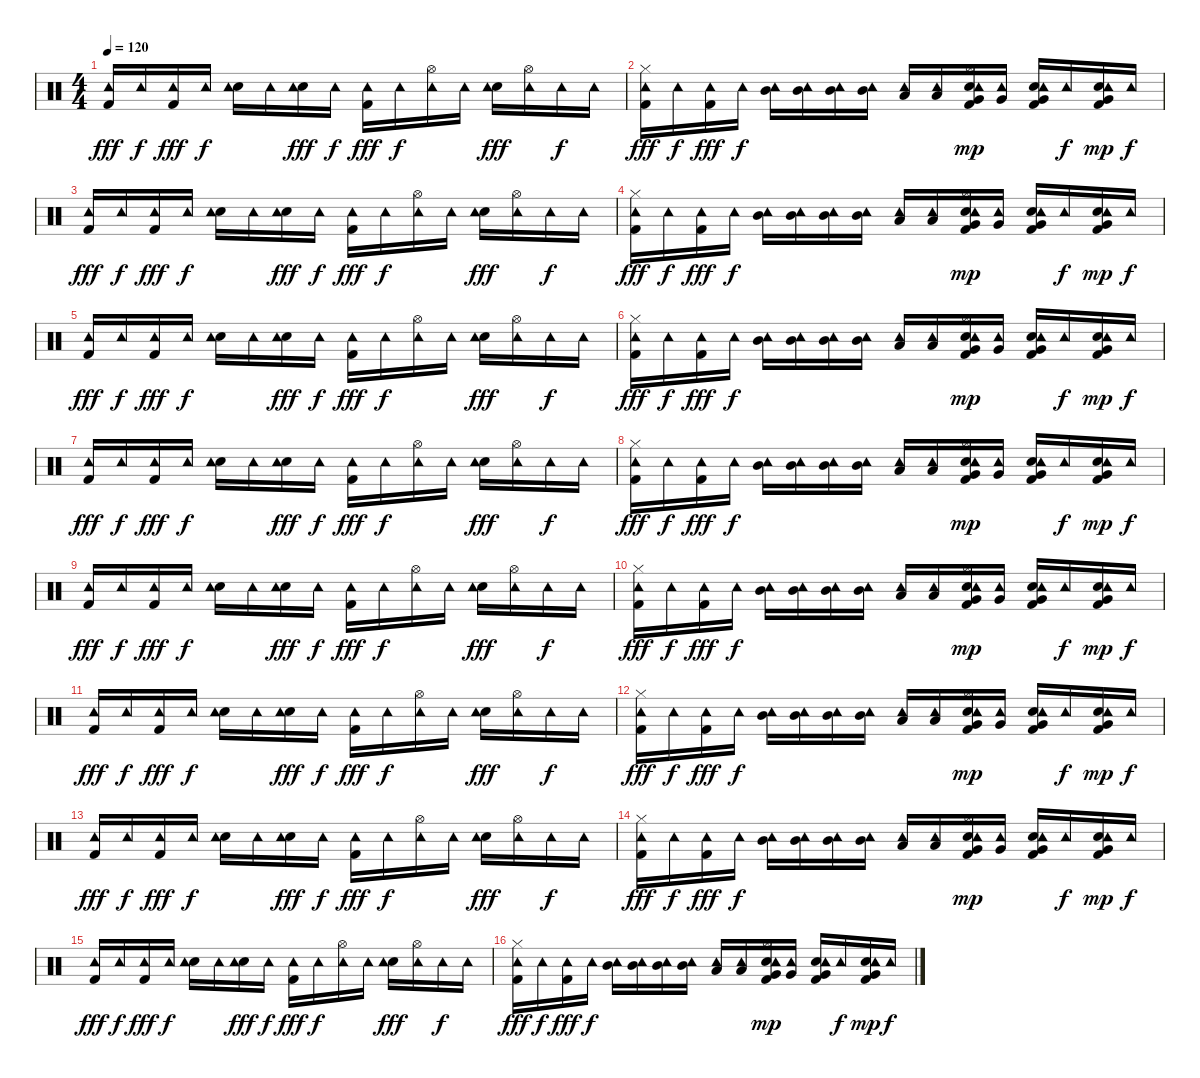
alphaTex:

\track "" {instrument percussion}
\staff {score}
\articulation defaults
\ts (4 4)
\tempo 120
\clef neutral
\ks c
("Tambourine (hit)" "Kick (hit) 2").16{dy fff} "Tambourine (hit)".16{dy f} ("Tambourine (hit)" "Kick (hit) 2").16{dy fff} "Tambourine (hit)".16{dy f} ("Hand Clap (hit)" "Tambourine (hit)").16 "Tambourine (hit)".16 ("Hand Clap (hit)" "Tambourine (hit)").16{dy fff} "Tambourine (hit)".16{dy f} ("Tambourine (hit)" "Kick (hit) 2").16{dy fff} "Tambourine (hit)".16{dy f} ("Hi-Hat (open)" "Tambourine (hit)").16 "Tambourine (hit)".16 ("Snare (hit) 2" "Tambourine (hit)").16{dy fff} ("Hi-Hat (open)" "Tambourine (hit)").16 "Tambourine (hit)".16{dy f} "Tambourine (hit)".16 |
("Hi-Hat (closed)" "Tambourine (hit)" "Kick (hit) 2").16{dy fff} "Tambourine (hit)".16{dy f} ("Tambourine (hit)" "Kick (hit) 2").16{dy fff} "Tambourine (hit)".16{dy f} ("Mid Tom (hit)" "Tambourine (hit)").16 ("Mid Tom (hit)" "Tambourine (hit)").16 ("Mid Tom (hit)" "Tambourine (hit)").16 ("Mid Tom (hit)" "Tambourine (hit)").16 ("Low Tom (hit)" "Tambourine (hit)").16 ("Low Tom (hit)" "Tambourine (hit)").16 ("Hi-Hat (open)" "Hand Clap (hit)" "Kick (hit) 2" "Very Low Tom (hit)" "Tambourine (hit)").16{dy mp} ("Very Low Tom (hit)" "Tambourine (hit)").16 ("Kick (hit) 2" "Very Low Tom (hit)" "Hand Clap (hit)" "Tambourine (hit)").16 "Tambourine (hit)".16{dy f} ("Kick (hit) 2" "Very Low Tom (hit)" "Hand Clap (hit)" "Tambourine (hit)").16{dy mp} "Tambourine (hit)".16{dy f} |
("Tambourine (hit)" "Kick (hit) 2").16{dy fff} "Tambourine (hit)".16{dy f} ("Tambourine (hit)" "Kick (hit) 2").16{dy fff} "Tambourine (hit)".16{dy f} ("Hand Clap (hit)" "Tambourine (hit)").16 "Tambourine (hit)".16 ("Hand Clap (hit)" "Tambourine (hit)").16{dy fff} "Tambourine (hit)".16{dy f} ("Tambourine (hit)" "Kick (hit) 2").16{dy fff} "Tambourine (hit)".16{dy f} ("Hi-Hat (open)" "Tambourine (hit)").16 "Tambourine (hit)".16 ("Snare (hit) 2" "Tambourine (hit)").16{dy fff} ("Hi-Hat (open)" "Tambourine (hit)").16 "Tambourine (hit)".16{dy f} "Tambourine (hit)".16 |
("Hi-Hat (closed)" "Tambourine (hit)" "Kick (hit) 2").16{dy fff} "Tambourine (hit)".16{dy f} ("Tambourine (hit)" "Kick (hit) 2").16{dy fff} "Tambourine (hit)".16{dy f} ("Mid Tom (hit)" "Tambourine (hit)").16 ("Mid Tom (hit)" "Tambourine (hit)").16 ("Mid Tom (hit)" "Tambourine (hit)").16 ("Mid Tom (hit)" "Tambourine (hit)").16 ("Low Tom (hit)" "Tambourine (hit)").16 ("Low Tom (hit)" "Tambourine (hit)").16 ("Hi-Hat (open)" "Hand Clap (hit)" "Kick (hit) 2" "Very Low Tom (hit)" "Tambourine (hit)").16{dy mp} ("Very Low Tom (hit)" "Tambourine (hit)").16 ("Kick (hit) 2" "Very Low Tom (hit)" "Hand Clap (hit)" "Tambourine (hit)").16 "Tambourine (hit)".16{dy f} ("Kick (hit) 2" "Very Low Tom (hit)" "Hand Clap (hit)" "Tambourine (hit)").16{dy mp} "Tambourine (hit)".16{dy f} |
("Tambourine (hit)" "Kick (hit) 2").16{dy fff} "Tambourine (hit)".16{dy f} ("Tambourine (hit)" "Kick (hit) 2").16{dy fff} "Tambourine (hit)".16{dy f} ("Hand Clap (hit)" "Tambourine (hit)").16 "Tambourine (hit)".16 ("Hand Clap (hit)" "Tambourine (hit)").16{dy fff} "Tambourine (hit)".16{dy f} ("Tambourine (hit)" "Kick (hit) 2").16{dy fff} "Tambourine (hit)".16{dy f} ("Hi-Hat (open)" "Tambourine (hit)").16 "Tambourine (hit)".16 ("Snare (hit) 2" "Tambourine (hit)").16{dy fff} ("Hi-Hat (open)" "Tambourine (hit)").16 "Tambourine (hit)".16{dy f} "Tambourine (hit)".16 |
("Hi-Hat (closed)" "Tambourine (hit)" "Kick (hit) 2").16{dy fff} "Tambourine (hit)".16{dy f} ("Tambourine (hit)" "Kick (hit) 2").16{dy fff} "Tambourine (hit)".16{dy f} ("Mid Tom (hit)" "Tambourine (hit)").16 ("Mid Tom (hit)" "Tambourine (hit)").16 ("Mid Tom (hit)" "Tambourine (hit)").16 ("Mid Tom (hit)" "Tambourine (hit)").16 ("Low Tom (hit)" "Tambourine (hit)").16 ("Low Tom (hit)" "Tambourine (hit)").16 ("Hi-Hat (open)" "Hand Clap (hit)" "Kick (hit) 2" "Very Low Tom (hit)" "Tambourine (hit)").16{dy mp} ("Very Low Tom (hit)" "Tambourine (hit)").16 ("Kick (hit) 2" "Very Low Tom (hit)" "Hand Clap (hit)" "Tambourine (hit)").16 "Tambourine (hit)".16{dy f} ("Kick (hit) 2" "Very Low Tom (hit)" "Hand Clap (hit)" "Tambourine (hit)").16{dy mp} "Tambourine (hit)".16{dy f} |
("Tambourine (hit)" "Kick (hit) 2").16{dy fff volume 12 balance 8} "Tambourine (hit)".16{dy f} ("Tambourine (hit)" "Kick (hit) 2").16{dy fff} "Tambourine (hit)".16{dy f} ("Hand Clap (hit)" "Tambourine (hit)").16 "Tambourine (hit)".16 ("Hand Clap (hit)" "Tambourine (hit)").16{dy fff} "Tambourine (hit)".16{dy f} ("Tambourine (hit)" "Kick (hit) 2").16{dy fff} "Tambourine (hit)".16{dy f} ("Hi-Hat (open)" "Tambourine (hit)").16 "Tambourine (hit)".16 ("Snare (hit) 2" "Tambourine (hit)").16{dy fff} ("Hi-Hat (open)" "Tambourine (hit)").16 "Tambourine (hit)".16{dy f} "Tambourine (hit)".16 |
("Hi-Hat (closed)" "Tambourine (hit)" "Kick (hit) 2").16{dy fff} "Tambourine (hit)".16{dy f} ("Tambourine (hit)" "Kick (hit) 2").16{dy fff} "Tambourine (hit)".16{dy f} ("Mid Tom (hit)" "Tambourine (hit)").16 ("Mid Tom (hit)" "Tambourine (hit)").16 ("Mid Tom (hit)" "Tambourine (hit)").16 ("Mid Tom (hit)" "Tambourine (hit)").16 ("Low Tom (hit)" "Tambourine (hit)").16 ("Low Tom (hit)" "Tambourine (hit)").16 ("Hi-Hat (open)" "Hand Clap (hit)" "Kick (hit) 2" "Very Low Tom (hit)" "Tambourine (hit)").16{dy mp} ("Very Low Tom (hit)" "Tambourine (hit)").16 ("Kick (hit) 2" "Very Low Tom (hit)" "Hand Clap (hit)" "Tambourine (hit)").16 "Tambourine (hit)".16{dy f} ("Kick (hit) 2" "Very Low Tom (hit)" "Hand Clap (hit)" "Tambourine (hit)").16{dy mp} "Tambourine (hit)".16{dy f} |
("Tambourine (hit)" "Kick (hit) 2").16{dy fff} "Tambourine (hit)".16{dy f} ("Tambourine (hit)" "Kick (hit) 2").16{dy fff} "Tambourine (hit)".16{dy f} ("Hand Clap (hit)" "Tambourine (hit)").16 "Tambourine (hit)".16 ("Hand Clap (hit)" "Tambourine (hit)").16{dy fff} "Tambourine (hit)".16{dy f} ("Tambourine (hit)" "Kick (hit) 2").16{dy fff} "Tambourine (hit)".16{dy f} ("Hi-Hat (open)" "Tambourine (hit)").16 "Tambourine (hit)".16 ("Snare (hit) 2" "Tambourine (hit)").16{dy fff} ("Hi-Hat (open)" "Tambourine (hit)").16 "Tambourine (hit)".16{dy f} "Tambourine (hit)".16 |
("Hi-Hat (closed)" "Tambourine (hit)" "Kick (hit) 2").16{dy fff} "Tambourine (hit)".16{dy f} ("Tambourine (hit)" "Kick (hit) 2").16{dy fff} "Tambourine (hit)".16{dy f} ("Mid Tom (hit)" "Tambourine (hit)").16 ("Mid Tom (hit)" "Tambourine (hit)").16 ("Mid Tom (hit)" "Tambourine (hit)").16 ("Mid Tom (hit)" "Tambourine (hit)").16 ("Low Tom (hit)" "Tambourine (hit)").16 ("Low Tom (hit)" "Tambourine (hit)").16 ("Hi-Hat (open)" "Hand Clap (hit)" "Kick (hit) 2" "Very Low Tom (hit)" "Tambourine (hit)").16{dy mp} ("Very Low Tom (hit)" "Tambourine (hit)").16 ("Kick (hit) 2" "Very Low Tom (hit)" "Hand Clap (hit)" "Tambourine (hit)").16 "Tambourine (hit)".16{dy f} ("Kick (hit) 2" "Very Low Tom (hit)" "Hand Clap (hit)" "Tambourine (hit)").16{dy mp} "Tambourine (hit)".16{dy f} |
("Tambourine (hit)" "Kick (hit) 2").16{dy fff} "Tambourine (hit)".16{dy f} ("Tambourine (hit)" "Kick (hit) 2").16{dy fff} "Tambourine (hit)".16{dy f} ("Hand Clap (hit)" "Tambourine (hit)").16 "Tambourine (hit)".16 ("Hand Clap (hit)" "Tambourine (hit)").16{dy fff} "Tambourine (hit)".16{dy f} ("Tambourine (hit)" "Kick (hit) 2").16{dy fff} "Tambourine (hit)".16{dy f} ("Hi-Hat (open)" "Tambourine (hit)").16 "Tambourine (hit)".16 ("Snare (hit) 2" "Tambourine (hit)").16{dy fff} ("Hi-Hat (open)" "Tambourine (hit)").16 "Tambourine (hit)".16{dy f} "Tambourine (hit)".16 |
("Hi-Hat (closed)" "Tambourine (hit)" "Kick (hit) 2").16{dy fff} "Tambourine (hit)".16{dy f} ("Tambourine (hit)" "Kick (hit) 2").16{dy fff} "Tambourine (hit)".16{dy f} ("Mid Tom (hit)" "Tambourine (hit)").16 ("Mid Tom (hit)" "Tambourine (hit)").16 ("Mid Tom (hit)" "Tambourine (hit)").16 ("Mid Tom (hit)" "Tambourine (hit)").16 ("Low Tom (hit)" "Tambourine (hit)").16 ("Low Tom (hit)" "Tambourine (hit)").16 ("Hi-Hat (open)" "Hand Clap (hit)" "Kick (hit) 2" "Very Low Tom (hit)" "Tambourine (hit)").16{dy mp} ("Very Low Tom (hit)" "Tambourine (hit)").16 ("Kick (hit) 2" "Very Low Tom (hit)" "Hand Clap (hit)" "Tambourine (hit)").16 "Tambourine (hit)".16{dy f} ("Kick (hit) 2" "Very Low Tom (hit)" "Hand Clap (hit)" "Tambourine (hit)").16{dy mp} "Tambourine (hit)".16{dy f} |
("Tambourine (hit)" "Kick (hit) 2").16{dy fff} "Tambourine (hit)".16{dy f} ("Tambourine (hit)" "Kick (hit) 2").16{dy fff} "Tambourine (hit)".16{dy f} ("Hand Clap (hit)" "Tambourine (hit)").16 "Tambourine (hit)".16 ("Hand Clap (hit)" "Tambourine (hit)").16{dy fff} "Tambourine (hit)".16{dy f} ("Tambourine (hit)" "Kick (hit) 2").16{dy fff} "Tambourine (hit)".16{dy f} ("Hi-Hat (open)" "Tambourine (hit)").16 "Tambourine (hit)".16 ("Snare (hit) 2" "Tambourine (hit)").16{dy fff} ("Hi-Hat (open)" "Tambourine (hit)").16 "Tambourine (hit)".16{dy f} "Tambourine (hit)".16 |
("Hi-Hat (closed)" "Tambourine (hit)" "Kick (hit) 2").16{dy fff} "Tambourine (hit)".16{dy f} ("Tambourine (hit)" "Kick (hit) 2").16{dy fff} "Tambourine (hit)".16{dy f} ("Mid Tom (hit)" "Tambourine (hit)").16 ("Mid Tom (hit)" "Tambourine (hit)").16 ("Mid Tom (hit)" "Tambourine (hit)").16 ("Mid Tom (hit)" "Tambourine (hit)").16 ("Low Tom (hit)" "Tambourine (hit)").16 ("Low Tom (hit)" "Tambourine (hit)").16 ("Hi-Hat (open)" "Hand Clap (hit)" "Kick (hit) 2" "Very Low Tom (hit)" "Tambourine (hit)").16{dy mp} ("Very Low Tom (hit)" "Tambourine (hit)").16 ("Kick (hit) 2" "Very Low Tom (hit)" "Hand Clap (hit)" "Tambourine (hit)").16 "Tambourine (hit)".16{dy f} ("Kick (hit) 2" "Very Low Tom (hit)" "Hand Clap (hit)" "Tambourine (hit)").16{dy mp} "Tambourine (hit)".16{dy f} |
("Tambourine (hit)" "Kick (hit) 2").16{dy fff} "Tambourine (hit)".16{dy f} ("Tambourine (hit)" "Kick (hit) 2").16{dy fff} "Tambourine (hit)".16{dy f} ("Hand Clap (hit)" "Tambourine (hit)").16 "Tambourine (hit)".16 ("Hand Clap (hit)" "Tambourine (hit)").16{dy fff} "Tambourine (hit)".16{dy f} ("Tambourine (hit)" "Kick (hit) 2").16{dy fff} "Tambourine (hit)".16{dy f} ("Hi-Hat (open)" "Tambourine (hit)").16 "Tambourine (hit)".16 ("Snare (hit) 2" "Tambourine (hit)").16{dy fff} ("Hi-Hat (open)" "Tambourine (hit)").16 "Tambourine (hit)".16{dy f} "Tambourine (hit)".16 |
("Hi-Hat (closed)" "Tambourine (hit)" "Kick (hit) 2").16{dy fff} "Tambourine (hit)".16{dy f} ("Tambourine (hit)" "Kick (hit) 2").16{dy fff} "Tambourine (hit)".16{dy f} ("Mid Tom (hit)" "Tambourine (hit)").16 ("Mid Tom (hit)" "Tambourine (hit)").16 ("Mid Tom (hit)" "Tambourine (hit)").16 ("Mid Tom (hit)" "Tambourine (hit)").16 ("Low Tom (hit)" "Tambourine (hit)").16 ("Low Tom (hit)" "Tambourine (hit)").16 ("Hi-Hat (open)" "Hand Clap (hit)" "Kick (hit) 2" "Very Low Tom (hit)" "Tambourine (hit)").16{dy mp} ("Very Low Tom (hit)" "Tambourine (hit)").16 ("Kick (hit) 2" "Very Low Tom (hit)" "Hand Clap (hit)" "Tambourine (hit)").16 "Tambourine (hit)".16{dy f} ("Kick (hit) 2" "Very Low Tom (hit)" "Hand Clap (hit)" "Tambourine (hit)").16{dy mp} "Tambourine (hit)".16{dy f}
